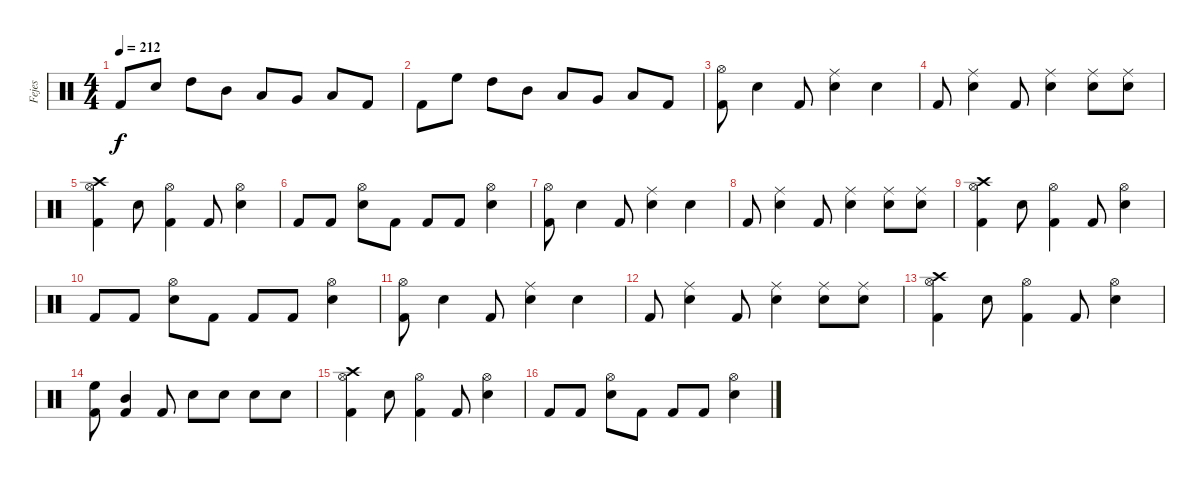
\track ("Fejes" "Fejes") {instrument percussion}
\staff {score}
\articulation defaults
\ts (4 4)
\tempo 212
\clef neutral
\ks c "Kick (hit) 2".8{dy f} "Snare (hit) 2".8 "High Tom (hit)".8 "Mid Tom (hit)".8 "Low Tom (hit)".8 "Very Low Tom (hit)".8 "Low Floor Tom (hit)".8 "Kick (hit) 2".8
|
"Kick (hit) 2".8 "High Floor Tom (hit)".8 "High Tom (hit)".8 "Mid Tom (hit)".8 "Low Tom (hit)".8 "Very Low Tom (hit)".8 "Low Floor Tom (hit)".8 "Kick (hit) 2".8 |
("Hi-Hat (open)" "Kick (hit) 2").8 "Snare (hit) 2".4 "Kick (hit) 2".8 ("Ride (middle)" "Snare (hit) 2").4 "Snare (hit) 2".4 |
"Kick (hit) 2".8 ("Ride (middle)" "Snare (hit) 2").4 "Kick (hit) 2".8 ("Ride (middle)" "Snare (hit) 2").4 ("Ride (middle)" "Snare (hit) 2").8 ("Ride (middle)" "Snare (hit) 2").8 |
("Crash high (hit)" "Hi-Hat (open)" "Kick (hit) 2").4 "Snare (hit) 2".8 ("Hi-Hat (open)" "Kick (hit) 2").4 "Kick (hit) 2".8 ("Hi-Hat (open)" "Snare (hit) 2").4 |
"Kick (hit) 2".8 "Kick (hit) 2".8 ("Hi-Hat (open)" "Snare (hit) 2").8 "Kick (hit) 2".8 "Kick (hit) 2".8 "Kick (hit) 2".8 ("Hi-Hat (open)" "Snare (hit) 2").4 |
("Hi-Hat (open)" "Kick (hit) 2").8 "Snare (hit) 2".4 "Kick (hit) 2".8 ("Ride (middle)" "Snare (hit) 2").4 "Snare (hit) 2".4 |
"Kick (hit) 2".8 ("Ride (middle)" "Snare (hit) 2").4 "Kick (hit) 2".8 ("Ride (middle)" "Snare (hit) 2").4 ("Ride (middle)" "Snare (hit) 2").8 ("Ride (middle)" "Snare (hit) 2").8 |
("Crash high (hit)" "Hi-Hat (open)" "Kick (hit) 2").4 "Snare (hit) 2".8 ("Hi-Hat (open)" "Kick (hit) 2").4 "Kick (hit) 2".8 ("Hi-Hat (open)" "Snare (hit) 2").4 |
"Kick (hit) 2".8 "Kick (hit) 2".8 ("Hi-Hat (open)" "Snare (hit) 2").8 "Kick (hit) 2".8 "Kick (hit) 2".8 "Kick (hit) 2".8 ("Hi-Hat (open)" "Snare (hit) 2").4 |
("Hi-Hat (open)" "Kick (hit) 2").8 "Snare (hit) 2".4 "Kick (hit) 2".8 ("Ride (middle)" "Snare (hit) 2").4 "Snare (hit) 2".4 |
"Kick (hit) 2".8 ("Ride (middle)" "Snare (hit) 2").4 "Kick (hit) 2".8 ("Ride (middle)" "Snare (hit) 2").4 ("Ride (middle)" "Snare (hit) 2").8 ("Ride (middle)" "Snare (hit) 2").8 |
("Crash high (hit)" "Hi-Hat (open)" "Kick (hit) 2").4 "Snare (hit) 2".8 ("Hi-Hat (open)" "Kick (hit) 2").4 "Kick (hit) 2".8 ("Hi-Hat (open)" "Snare (hit) 2").4 |
("High Floor Tom (hit)" "Kick (hit) 2").8 ("Mid Tom (hit)" "Kick (hit) 2").4 "Kick (hit) 2".8 "Snare (hit) 2".8 "Snare (hit) 2".8 "Snare (hit) 2".8 "Snare (hit) 2".8 |
("Crash high (hit)" "Hi-Hat (open)" "Kick (hit) 2").4 "Snare (hit) 2".8 ("Hi-Hat (open)" "Kick (hit) 2").4 "Kick (hit) 2".8 ("Hi-Hat (open)" "Snare (hit) 2").4 |
"Kick (hit) 2".8 "Kick (hit) 2".8 ("Hi-Hat (open)" "Snare (hit) 2").8 "Kick (hit) 2".8 "Kick (hit) 2".8 "Kick (hit) 2".8 ("Hi-Hat (open)" "Snare (hit) 2").4
